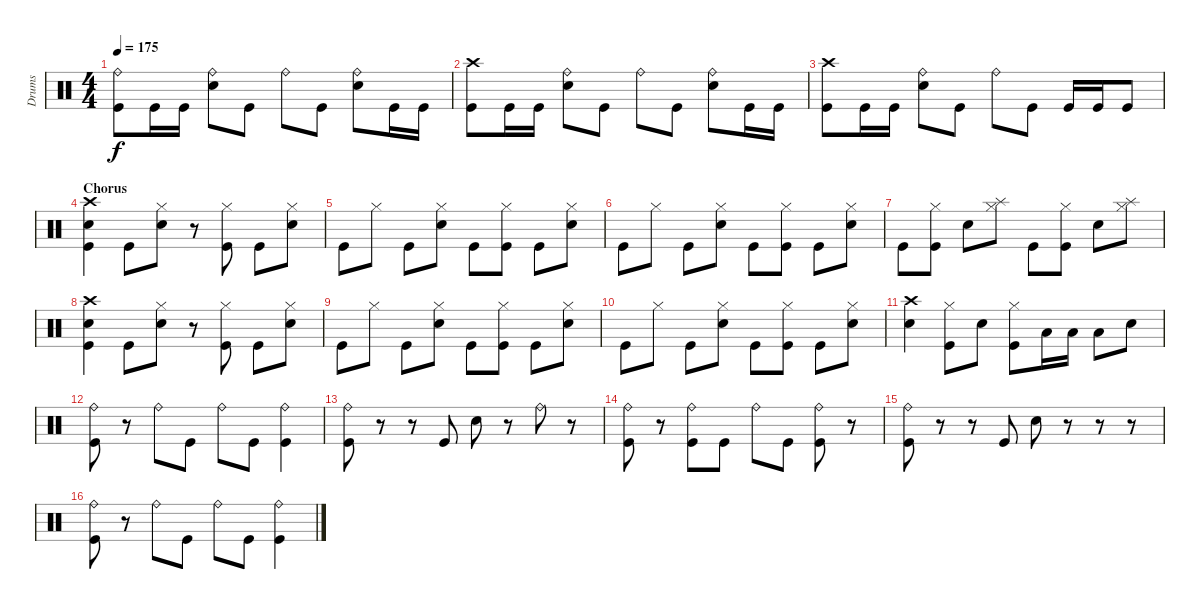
\track ("Drums" "Drums") {instrument percussion}
\staff {score}
\articulation defaults
\ts (4 4)
\tempo 175
\clef neutral
\ks c
("Ride (bell)" "Kick (hit)").8{dy f} "Kick (hit)".16 "Kick (hit)".16 ("Ride (bell)" "Electric Snare (hit)").8 "Kick (hit)".8 "Ride (bell)".8 "Kick (hit)".8 ("Ride (bell)" "Electric Snare (hit)").8 "Kick (hit)".16 "Kick (hit)".16 |
("Crash high (hit)" "Kick (hit)").8 "Kick (hit)".16 "Kick (hit)".16 ("Ride (bell)" "Electric Snare (hit)").8 "Kick (hit)".8 "Ride (bell)".8 "Kick (hit)".8 ("Ride (bell)" "Electric Snare (hit)").8 "Kick (hit)".16 "Kick (hit)".16 |
("Crash high (hit)" "Kick (hit)").8 "Kick (hit)".16 "Kick (hit)".16 ("Ride (bell)" "Electric Snare (hit)").8 "Kick (hit)".8 "Ride (bell)".8 "Kick (hit)".8 "Kick (hit)".16 "Kick (hit)".16 "Kick (hit)".8 |
\section ("" "Chorus")
("Crash high (hit)" "Electric Snare (hit)" "Kick (hit)").4 "Kick (hit)".8 ("Hi-Hat (closed)" "Electric Snare (hit)").8 r.8 ("Hi-Hat (closed)" "Kick (hit)").8 "Kick (hit)".8 ("Hi-Hat (closed)" "Electric Snare (hit)").8 |
"Kick (hit)".8 "Hi-Hat (closed)".8 "Kick (hit)".8 ("Hi-Hat (closed)" "Electric Snare (hit)").8 "Kick (hit)".8 ("Hi-Hat (closed)" "Kick (hit)").8 "Kick (hit)".8 ("Hi-Hat (closed)" "Electric Snare (hit)").8 |
"Kick (hit)".8 "Hi-Hat (closed)".8 "Kick (hit)".8 ("Hi-Hat (closed)" "Electric Snare (hit)").8 "Kick (hit)".8 ("Hi-Hat (closed)" "Kick (hit)").8 "Kick (hit)".8 ("Hi-Hat (closed)" "Electric Snare (hit)").8 |
"Kick (hit)".8 ("Hi-Hat (closed)" "Kick (hit)").8 "Electric Snare (hit)".8 ("Hi-Hat (closed)" "Splash (hit)").8 "Kick (hit)".8 ("Hi-Hat (closed)" "Kick (hit)").8 "Electric Snare (hit)".8 ("Hi-Hat (closed)" "Splash (hit)").8 |
("Crash high (hit)" "Electric Snare (hit)" "Kick (hit)").4 "Kick (hit)".8 ("Hi-Hat (closed)" "Electric Snare (hit)").8 r.8 ("Hi-Hat (closed)" "Kick (hit)").8 "Kick (hit)".8 ("Hi-Hat (closed)" "Electric Snare (hit)").8 |
"Kick (hit)".8 "Hi-Hat (closed)".8 "Kick (hit)".8 ("Hi-Hat (closed)" "Electric Snare (hit)").8 "Kick (hit)".8 ("Hi-Hat (closed)" "Kick (hit)").8 "Kick (hit)".8 ("Hi-Hat (closed)" "Electric Snare (hit)").8 |
"Kick (hit)".8 "Hi-Hat (closed)".8 "Kick (hit)".8 ("Hi-Hat (closed)" "Electric Snare (hit)").8 "Kick (hit)".8 ("Hi-Hat (closed)" "Kick (hit)").8 "Kick (hit)".8 ("Hi-Hat (closed)" "Electric Snare (hit)").8 |
("Crash high (hit)" "Electric Snare (hit)").4 ("Hi-Hat (closed)" "Kick (hit)").8 "Electric Snare (hit)".8 ("Hi-Hat (closed)" "Kick (hit)").8 "Low Tom (hit)".16 "Low Tom (hit)".16 "Low Tom (hit)".8 "Electric Snare (hit)".8 |
("Ride (bell)" "Kick (hit)").8 r.8 "Ride (bell)".8 "Kick (hit)".8 "Ride (bell)".8 "Kick (hit)".8 ("Ride (bell)" "Kick (hit)").4 |
("Ride (bell)" "Kick (hit)").8 r.8 r.8 "Kick (hit)".8 "Electric Snare (hit)".8 r.8 "Ride (bell)".8 r.8 |
("Ride (bell)" "Kick (hit)").8 r.8 ("Ride (bell)" "Kick (hit)").8 "Kick (hit)".8 "Ride (bell)".8 "Kick (hit)".8 ("Ride (bell)" "Kick (hit)").8 r.8 |
("Ride (bell)" "Kick (hit)").8 r.8 r.8 "Kick (hit)".8 "Electric Snare (hit)".8 r.8 r.8 r.8 |
("Ride (bell)" "Kick (hit)").8 r.8 "Ride (bell)".8 "Kick (hit)".8 "Ride (bell)".8 "Kick (hit)".8 ("Ride (bell)" "Kick (hit)").4
